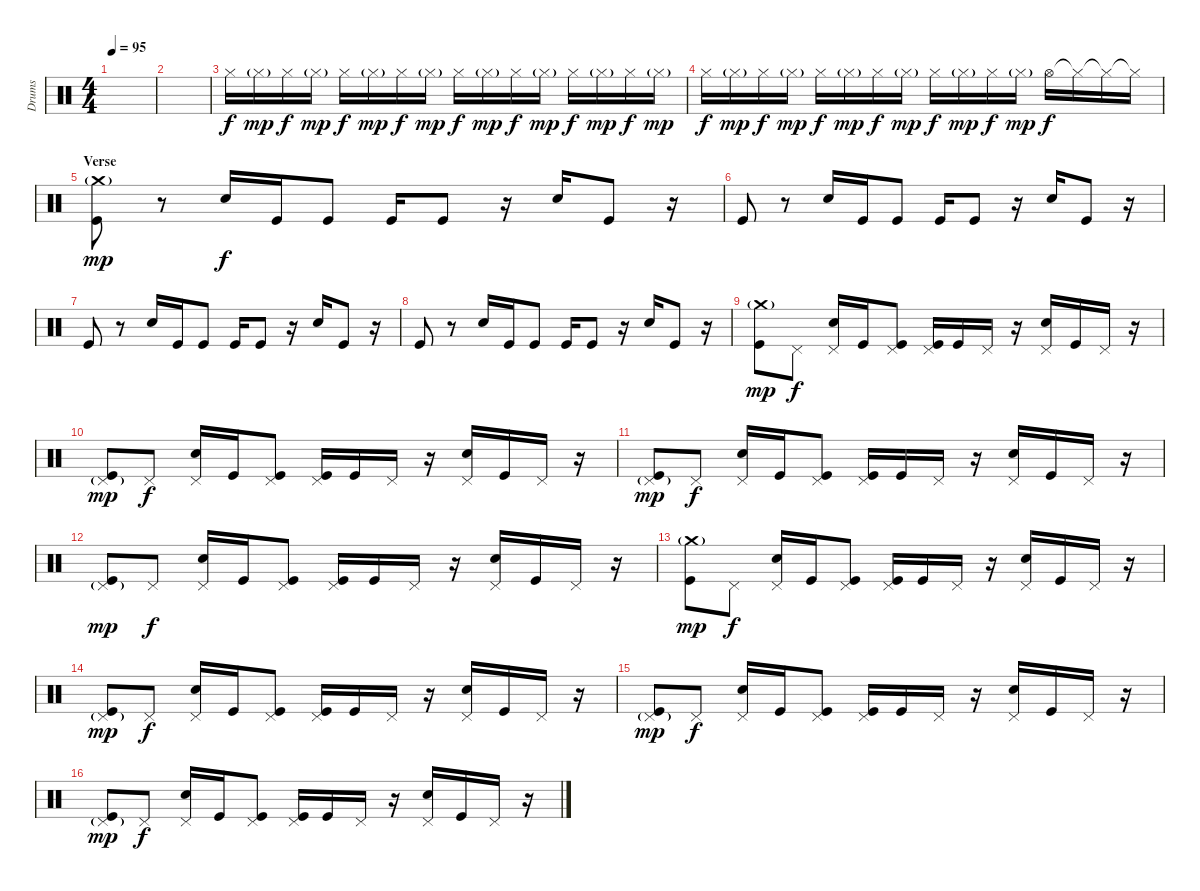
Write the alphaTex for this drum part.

\track ("Drums" "Drums") {instrument percussion}
\staff {score}
\articulation defaults
\ts (4 4)
\tempo 95
\clef neutral
\ks c
|
|
"Hi-Hat (closed)".16 "Hi-Hat (closed)"{g}.16{dy mp} "Hi-Hat (closed)".16{dy f} "Hi-Hat (closed)"{g}.16{dy mp} "Hi-Hat (closed)".16{dy f} "Hi-Hat (closed)"{g}.16{dy mp} "Hi-Hat (closed)".16{dy f} "Hi-Hat (closed)"{g}.16{dy mp} "Hi-Hat (closed)".16{dy f} "Hi-Hat (closed)"{g}.16{dy mp} "Hi-Hat (closed)".16{dy f} "Hi-Hat (closed)"{g}.16{dy mp} "Hi-Hat (closed)".16{dy f} "Hi-Hat (closed)"{g}.16{dy mp} "Hi-Hat (closed)".16{dy f} "Hi-Hat (closed)"{g}.16{dy mp} |
"Hi-Hat (closed)".16{dy f} "Hi-Hat (closed)"{g}.16{dy mp} "Hi-Hat (closed)".16{dy f} "Hi-Hat (closed)"{g}.16{dy mp} "Hi-Hat (closed)".16{dy f} "Hi-Hat (closed)"{g}.16{dy mp} "Hi-Hat (closed)".16{dy f} "Hi-Hat (closed)"{g}.16{dy mp} "Hi-Hat (closed)".16{dy f} "Hi-Hat (closed)"{g}.16{dy mp} "Hi-Hat (closed)".16{dy f} "Hi-Hat (closed)"{g}.16{dy mp} "Hi-Hat (open)".16{dy f} "Hi-Hat (closed)"{t}.16 "Hi-Hat (closed)"{t}.16 "Hi-Hat (closed)"{t}.16 |
\section ("" "Verse")
("Crash medium (hit)"{g} "Kick (hit)").8{dy mp} r.8 "Snare (hit) 2".16{dy f} "Kick (hit)".16 "Kick (hit)".8 "Kick (hit)".16 "Kick (hit)".8 r.16 "Snare (hit) 2".16 "Kick (hit)".8 r.16 |
"Kick (hit)".8 r.8 "Snare (hit) 2".16 "Kick (hit)".16 "Kick (hit)".8 "Kick (hit)".16 "Kick (hit)".8 r.16 "Snare (hit) 2".16 "Kick (hit)".8 r.16 |
"Kick (hit)".8 r.8 "Snare (hit) 2".16 "Kick (hit)".16 "Kick (hit)".8 "Kick (hit)".16 "Kick (hit)".8 r.16 "Snare (hit) 2".16 "Kick (hit)".8 r.16 |
"Kick (hit)".8 r.8 "Snare (hit) 2".16 "Kick (hit)".16 "Kick (hit)".8 "Kick (hit)".16 "Kick (hit)".8 r.16 "Snare (hit) 2".16 "Kick (hit)".8 r.16 |
("Crash medium (hit)"{g} "Kick (hit)").8{dy mp} "Pedal Hi-Hat (hit)".8{dy f} ("Pedal Hi-Hat (hit)" "Snare (hit) 2").16 "Kick (hit)".16 ("Pedal Hi-Hat (hit)" "Kick (hit)").8 ("Pedal Hi-Hat (hit)" "Kick (hit)").16 "Kick (hit)".16 "Pedal Hi-Hat (hit)".16 r.16 ("Pedal Hi-Hat (hit)" "Snare (hit) 2").16 "Kick (hit)".16 "Pedal Hi-Hat (hit)".16 r.16 |
("Pedal Hi-Hat (hit)"{g} "Kick (hit)").8{dy mp} "Pedal Hi-Hat (hit)".8{dy f} ("Pedal Hi-Hat (hit)" "Snare (hit) 2").16 "Kick (hit)".16 ("Pedal Hi-Hat (hit)" "Kick (hit)").8 ("Pedal Hi-Hat (hit)" "Kick (hit)").16 "Kick (hit)".16 "Pedal Hi-Hat (hit)".16 r.16 ("Pedal Hi-Hat (hit)" "Snare (hit) 2").16 "Kick (hit)".16 "Pedal Hi-Hat (hit)".16 r.16 |
("Pedal Hi-Hat (hit)"{g} "Kick (hit)").8{dy mp} "Pedal Hi-Hat (hit)".8{dy f} ("Pedal Hi-Hat (hit)" "Snare (hit) 2").16 "Kick (hit)".16 ("Pedal Hi-Hat (hit)" "Kick (hit)").8 ("Pedal Hi-Hat (hit)" "Kick (hit)").16 "Kick (hit)".16 "Pedal Hi-Hat (hit)".16 r.16 ("Pedal Hi-Hat (hit)" "Snare (hit) 2").16 "Kick (hit)".16 "Pedal Hi-Hat (hit)".16 r.16 |
("Pedal Hi-Hat (hit)"{g} "Kick (hit)").8{dy mp} "Pedal Hi-Hat (hit)".8{dy f} ("Pedal Hi-Hat (hit)" "Snare (hit) 2").16 "Kick (hit)".16 ("Pedal Hi-Hat (hit)" "Kick (hit)").8 ("Pedal Hi-Hat (hit)" "Kick (hit)").16 "Kick (hit)".16 "Pedal Hi-Hat (hit)".16 r.16 ("Pedal Hi-Hat (hit)" "Snare (hit) 2").16 "Kick (hit)".16 "Pedal Hi-Hat (hit)".16 r.16 |
("Crash medium (hit)"{g} "Kick (hit)").8{dy mp} "Pedal Hi-Hat (hit)".8{dy f} ("Pedal Hi-Hat (hit)" "Snare (hit) 2").16 "Kick (hit)".16 ("Pedal Hi-Hat (hit)" "Kick (hit)").8 ("Pedal Hi-Hat (hit)" "Kick (hit)").16 "Kick (hit)".16 "Pedal Hi-Hat (hit)".16 r.16 ("Pedal Hi-Hat (hit)" "Snare (hit) 2").16 "Kick (hit)".16 "Pedal Hi-Hat (hit)".16 r.16 |
("Pedal Hi-Hat (hit)"{g} "Kick (hit)").8{dy mp} "Pedal Hi-Hat (hit)".8{dy f} ("Pedal Hi-Hat (hit)" "Snare (hit) 2").16 "Kick (hit)".16 ("Pedal Hi-Hat (hit)" "Kick (hit)").8 ("Pedal Hi-Hat (hit)" "Kick (hit)").16 "Kick (hit)".16 "Pedal Hi-Hat (hit)".16 r.16 ("Pedal Hi-Hat (hit)" "Snare (hit) 2").16 "Kick (hit)".16 "Pedal Hi-Hat (hit)".16 r.16 |
("Pedal Hi-Hat (hit)"{g} "Kick (hit)").8{dy mp} "Pedal Hi-Hat (hit)".8{dy f} ("Pedal Hi-Hat (hit)" "Snare (hit) 2").16 "Kick (hit)".16 ("Pedal Hi-Hat (hit)" "Kick (hit)").8 ("Pedal Hi-Hat (hit)" "Kick (hit)").16 "Kick (hit)".16 "Pedal Hi-Hat (hit)".16 r.16 ("Pedal Hi-Hat (hit)" "Snare (hit) 2").16 "Kick (hit)".16 "Pedal Hi-Hat (hit)".16 r.16 |
("Pedal Hi-Hat (hit)"{g} "Kick (hit)").8{dy mp} "Pedal Hi-Hat (hit)".8{dy f} ("Pedal Hi-Hat (hit)" "Snare (hit) 2").16 "Kick (hit)".16 ("Pedal Hi-Hat (hit)" "Kick (hit)").8 ("Pedal Hi-Hat (hit)" "Kick (hit)").16 "Kick (hit)".16 "Pedal Hi-Hat (hit)".16 r.16 ("Pedal Hi-Hat (hit)" "Snare (hit) 2").16 "Kick (hit)".16 "Pedal Hi-Hat (hit)".16 r.16
